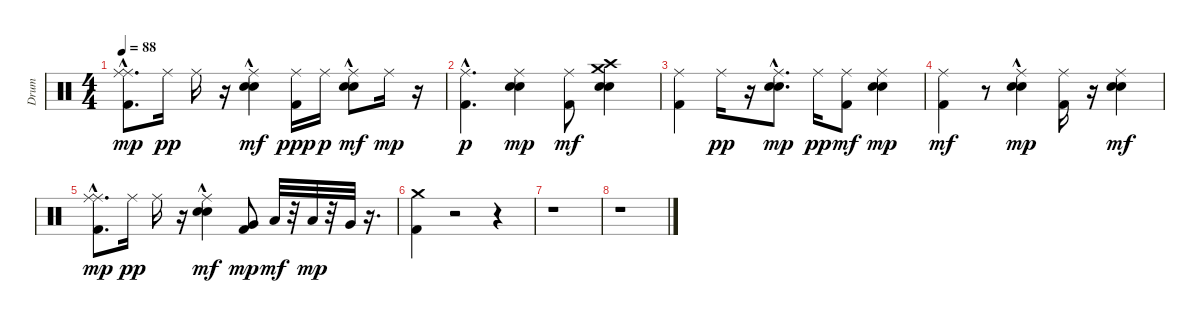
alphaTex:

\track ("Drum" "Drum") {instrument percussion}
\staff {score}
\articulation defaults
\ts (4 4)
\tempo 88
\clef neutral
\ks c
("Kick (hit) 2" "Ride (middle)"{hac} "Ride (middle)").8{d dy mp} "Ride (middle)".16{dy pp} "Ride (middle)".16 r.16 ("Electric Snare (hit)" "Ride (middle)" "Electric Snare (hit)"{hac}).4{dy mf} ("Kick (hit) 2" "Ride (middle)").16{dy ppp} "Ride (middle)".16{dy p} ("Ride (middle)" "Electric Snare (hit)" "Electric Snare (hit)"{hac}).8{dy mf} "Ride (middle)".16{dy mp} r.16 |
("Kick (hit) 2"{hac} "Ride (middle)").4{d dy p} ("Electric Snare (hit)" "Electric Snare (hit)" "Ride (middle)").4{dy mp} ("Ride (middle)" "Kick (hit) 2").8{dy mf} ("Electric Snare (hit)" "Crash medium (hit)" "Electric Snare (hit)" "Crash high (hit)").4 |
("Ride (middle)" "Kick (hit) 2").4 "Ride (middle)".16{dy pp} r.16 ("Electric Snare (hit)"{hac} "Electric Snare (hit)"{hac} "Ride (middle)").8{d dy mp} "Ride (middle)".16{dy pp} ("Ride (middle)" "Kick (hit) 2").8{dy mf} ("Electric Snare (hit)" "Electric Snare (hit)" "Ride (middle)").4{dy mp} |
("Ride (middle)" "Kick (hit) 2").4{dy mf} r.8 ("Electric Snare (hit)" "Electric Snare (hit)"{hac} "Ride (middle)").4{dy mp} ("Ride (middle)" "Kick (hit) 2").16 r.16 ("Electric Snare (hit)" "Ride (middle)" "Electric Snare (hit)").4{dy mf} |
("Ride (middle)"{hac} "Kick (hit) 2" "Ride (middle)").8{d dy mp} "Ride (middle)".16{dy pp} "Ride (middle)".16 r.16 ("Electric Snare (hit)" "Ride (middle)" "Electric Snare (hit)"{hac}).4{dy mf} ("Kick (hit) 2" "Very Low Tom (hit)").8{dy mp} "Low Tom (hit)".32{dy mf} r.32 "Low Tom (hit)".32{dy mp} r.32 "Very Low Tom (hit)".32 r.16{d} |
("Kick (hit) 2" "Crash medium (hit)").4 r.2 r.4 |
r.1 |
r.1
